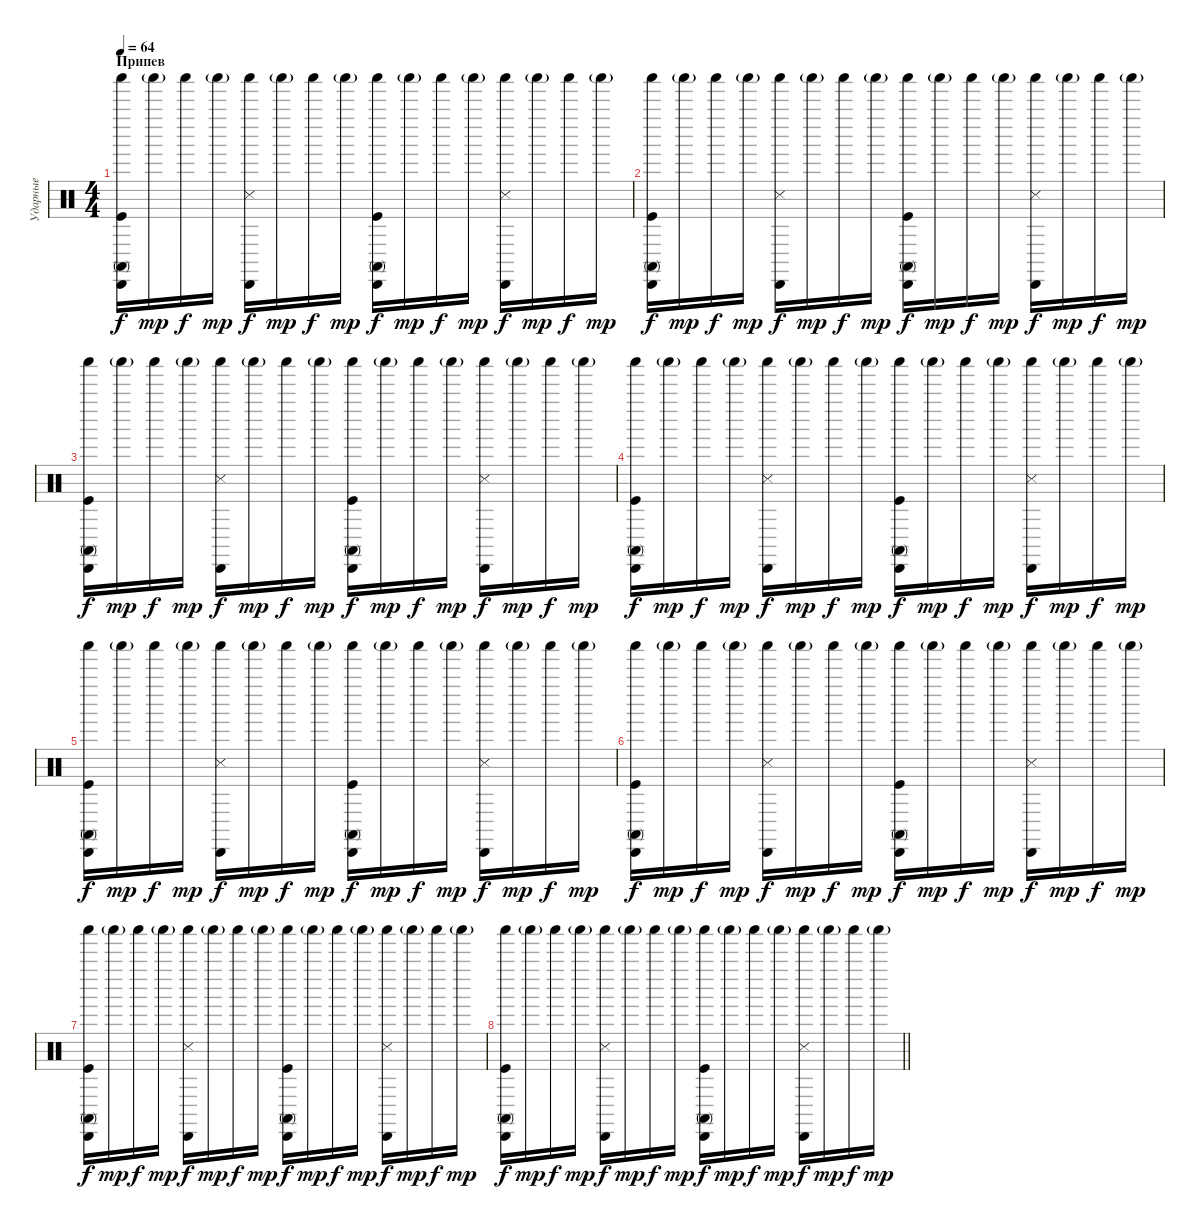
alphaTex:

\track ("Ударные" "Ударные") {instrument percussion}
\staff {score}
\articulation defaults
\ts (4 4)
\section ("" "Припев")
\tempo 64
\clef neutral
\ks c
("Kick (hit)" "Conga high (mute)" "Cabasa (hit)" "Shaker (hit)").16{dy f} "Shaker (hit)"{g}.16{dy mp} "Shaker (hit)".16{dy f} "Shaker (hit)"{g}.16{dy mp} ("Snare (side stick) 3" "Cabasa (hit)" "Shaker (hit)").16{dy f} "Shaker (hit)"{g}.16{dy mp} "Shaker (hit)".16{dy f} "Shaker (hit)"{g}.16{dy mp} ("Kick (hit)" "Conga high (mute)" "Cabasa (hit)" "Shaker (hit)").16{dy f} "Shaker (hit)"{g}.16{dy mp} "Shaker (hit)".16{dy f} "Shaker (hit)"{g}.16{dy mp} ("Snare (side stick) 3" "Cabasa (hit)" "Shaker (hit)").16{dy f} "Shaker (hit)"{g}.16{dy mp} "Shaker (hit)".16{dy f} "Shaker (hit)"{g}.16{dy mp} |
("Kick (hit)" "Conga high (mute)" "Cabasa (hit)" "Shaker (hit)").16{dy f} "Shaker (hit)"{g}.16{dy mp} "Shaker (hit)".16{dy f} "Shaker (hit)"{g}.16{dy mp} ("Snare (side stick) 3" "Cabasa (hit)" "Shaker (hit)").16{dy f} "Shaker (hit)"{g}.16{dy mp} "Shaker (hit)".16{dy f} "Shaker (hit)"{g}.16{dy mp} ("Kick (hit)" "Conga high (mute)" "Cabasa (hit)" "Shaker (hit)").16{dy f} "Shaker (hit)"{g}.16{dy mp} "Shaker (hit)".16{dy f} "Shaker (hit)"{g}.16{dy mp} ("Snare (side stick) 3" "Cabasa (hit)" "Shaker (hit)").16{dy f} "Shaker (hit)"{g}.16{dy mp} "Shaker (hit)".16{dy f} "Shaker (hit)"{g}.16{dy mp} |
("Kick (hit)" "Conga high (mute)" "Cabasa (hit)" "Shaker (hit)").16{dy f} "Shaker (hit)"{g}.16{dy mp} "Shaker (hit)".16{dy f} "Shaker (hit)"{g}.16{dy mp} ("Snare (side stick) 3" "Cabasa (hit)" "Shaker (hit)").16{dy f} "Shaker (hit)"{g}.16{dy mp} "Shaker (hit)".16{dy f} "Shaker (hit)"{g}.16{dy mp} ("Kick (hit)" "Conga high (mute)" "Cabasa (hit)" "Shaker (hit)").16{dy f} "Shaker (hit)"{g}.16{dy mp} "Shaker (hit)".16{dy f} "Shaker (hit)"{g}.16{dy mp} ("Snare (side stick) 3" "Cabasa (hit)" "Shaker (hit)").16{dy f} "Shaker (hit)"{g}.16{dy mp} "Shaker (hit)".16{dy f} "Shaker (hit)"{g}.16{dy mp} |
("Kick (hit)" "Conga high (mute)" "Cabasa (hit)" "Shaker (hit)").16{dy f} "Shaker (hit)"{g}.16{dy mp} "Shaker (hit)".16{dy f} "Shaker (hit)"{g}.16{dy mp} ("Snare (side stick) 3" "Cabasa (hit)" "Shaker (hit)").16{dy f} "Shaker (hit)"{g}.16{dy mp} "Shaker (hit)".16{dy f} "Shaker (hit)"{g}.16{dy mp} ("Kick (hit)" "Conga high (mute)" "Cabasa (hit)" "Shaker (hit)").16{dy f} "Shaker (hit)"{g}.16{dy mp} "Shaker (hit)".16{dy f} "Shaker (hit)"{g}.16{dy mp} ("Snare (side stick) 3" "Cabasa (hit)" "Shaker (hit)").16{dy f} "Shaker (hit)"{g}.16{dy mp} "Shaker (hit)".16{dy f} "Shaker (hit)"{g}.16{dy mp} |
("Kick (hit)" "Conga high (mute)" "Cabasa (hit)" "Shaker (hit)").16{dy f} "Shaker (hit)"{g}.16{dy mp} "Shaker (hit)".16{dy f} "Shaker (hit)"{g}.16{dy mp} ("Snare (side stick) 3" "Cabasa (hit)" "Shaker (hit)").16{dy f} "Shaker (hit)"{g}.16{dy mp} "Shaker (hit)".16{dy f} "Shaker (hit)"{g}.16{dy mp} ("Kick (hit)" "Conga high (mute)" "Cabasa (hit)" "Shaker (hit)").16{dy f} "Shaker (hit)"{g}.16{dy mp} "Shaker (hit)".16{dy f} "Shaker (hit)"{g}.16{dy mp} ("Snare (side stick) 3" "Cabasa (hit)" "Shaker (hit)").16{dy f} "Shaker (hit)"{g}.16{dy mp} "Shaker (hit)".16{dy f} "Shaker (hit)"{g}.16{dy mp} |
("Kick (hit)" "Conga high (mute)" "Cabasa (hit)" "Shaker (hit)").16{dy f} "Shaker (hit)"{g}.16{dy mp} "Shaker (hit)".16{dy f} "Shaker (hit)"{g}.16{dy mp} ("Snare (side stick) 3" "Cabasa (hit)" "Shaker (hit)").16{dy f} "Shaker (hit)"{g}.16{dy mp} "Shaker (hit)".16{dy f} "Shaker (hit)"{g}.16{dy mp} ("Kick (hit)" "Conga high (mute)" "Cabasa (hit)" "Shaker (hit)").16{dy f} "Shaker (hit)"{g}.16{dy mp} "Shaker (hit)".16{dy f} "Shaker (hit)"{g}.16{dy mp} ("Snare (side stick) 3" "Cabasa (hit)" "Shaker (hit)").16{dy f} "Shaker (hit)"{g}.16{dy mp} "Shaker (hit)".16{dy f} "Shaker (hit)"{g}.16{dy mp} |
("Kick (hit)" "Conga high (mute)" "Cabasa (hit)" "Shaker (hit)").16{dy f} "Shaker (hit)"{g}.16{dy mp} "Shaker (hit)".16{dy f} "Shaker (hit)"{g}.16{dy mp} ("Snare (side stick) 3" "Cabasa (hit)" "Shaker (hit)").16{dy f} "Shaker (hit)"{g}.16{dy mp} "Shaker (hit)".16{dy f} "Shaker (hit)"{g}.16{dy mp} ("Kick (hit)" "Conga high (mute)" "Cabasa (hit)" "Shaker (hit)").16{dy f} "Shaker (hit)"{g}.16{dy mp} "Shaker (hit)".16{dy f} "Shaker (hit)"{g}.16{dy mp} ("Snare (side stick) 3" "Cabasa (hit)" "Shaker (hit)").16{dy f} "Shaker (hit)"{g}.16{dy mp} "Shaker (hit)".16{dy f} "Shaker (hit)"{g}.16{dy mp} |
\barLineRight lightlight
("Kick (hit)" "Conga high (mute)" "Cabasa (hit)" "Shaker (hit)").16{dy f} "Shaker (hit)"{g}.16{dy mp} "Shaker (hit)".16{dy f} "Shaker (hit)"{g}.16{dy mp} ("Snare (side stick) 3" "Cabasa (hit)" "Shaker (hit)").16{dy f} "Shaker (hit)"{g}.16{dy mp} "Shaker (hit)".16{dy f} "Shaker (hit)"{g}.16{dy mp} ("Kick (hit)" "Conga high (mute)" "Cabasa (hit)" "Shaker (hit)").16{dy f} "Shaker (hit)"{g}.16{dy mp} "Shaker (hit)".16{dy f} "Shaker (hit)"{g}.16{dy mp} ("Snare (side stick) 3" "Cabasa (hit)" "Shaker (hit)").16{dy f} "Shaker (hit)"{g}.16{dy mp} "Shaker (hit)".16{dy f} "Shaker (hit)"{g}.16{dy mp}
